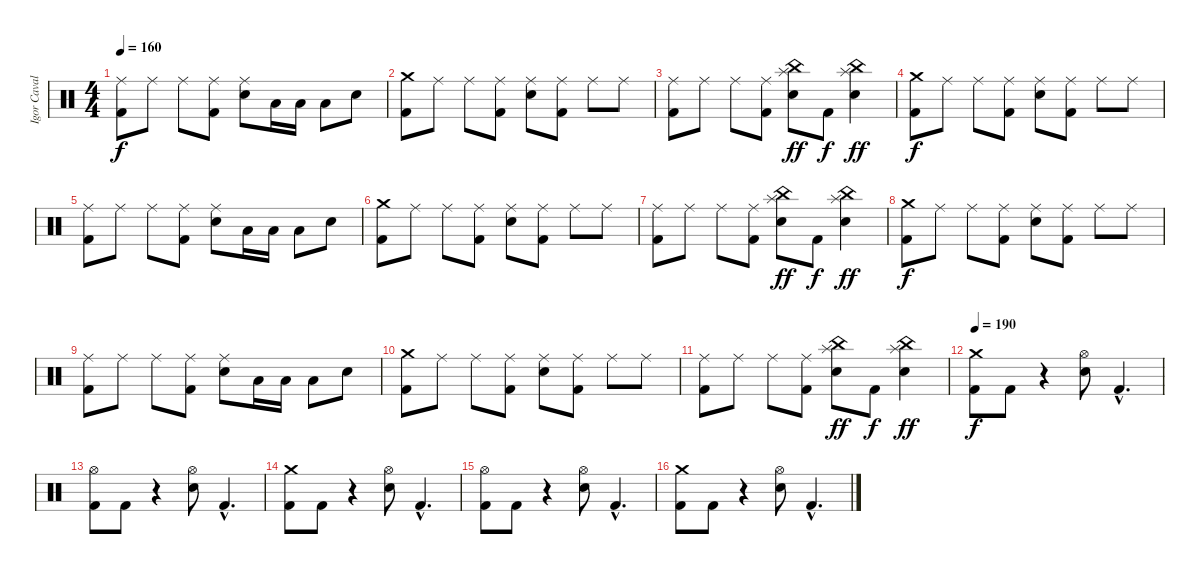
\track ("Igor Cavalera" "Igor Caval") {instrument percussion}
\staff {score}
\articulation defaults
\ts (4 4)
\tempo 160
\clef neutral
\ks c
("Kick (hit) 2" "Ride (middle)").8{dy f} "Ride (middle)".8 "Ride (middle)".8 ("Kick (hit) 2" "Ride (middle)").8 ("Electric Snare (hit)" "Ride (middle)").8 "Low Tom (hit)".16 "Low Tom (hit)".16 "Low Tom (hit)".8 "Electric Snare (hit)".8 |
("Kick (hit) 2" "Crash medium (hit)").8 "Ride (middle)".8 "Ride (middle)".8 ("Kick (hit) 2" "Ride (middle)").8 ("Electric Snare (hit)" "Ride (middle)").8 ("Kick (hit) 2" "Ride (middle)").8 "Ride (middle)".8 "Ride (middle)".8 |
("Kick (hit) 2" "Ride (middle)").8 "Ride (middle)".8 "Ride (middle)".8 ("Kick (hit) 2" "Ride (middle)").8 ("China (hit)" "Electric Snare (hit)" "Splash (hit)").8{dy ff} "Kick (hit) 2".8{dy f} ("China (hit)" "Electric Snare (hit)" "Splash (hit)").4{dy ff} |
("Kick (hit) 2" "Crash medium (hit)").8{dy f} "Ride (middle)".8 "Ride (middle)".8 ("Kick (hit) 2" "Ride (middle)").8 ("Electric Snare (hit)" "Ride (middle)").8 ("Kick (hit) 2" "Ride (middle)").8 "Ride (middle)".8 "Ride (middle)".8 |
("Kick (hit) 2" "Ride (middle)").8 "Ride (middle)".8 "Ride (middle)".8 ("Kick (hit) 2" "Ride (middle)").8 ("Electric Snare (hit)" "Ride (middle)").8 "Low Tom (hit)".16 "Low Tom (hit)".16 "Low Tom (hit)".8 "Electric Snare (hit)".8 |
("Kick (hit) 2" "Crash medium (hit)").8 "Ride (middle)".8 "Ride (middle)".8 ("Kick (hit) 2" "Ride (middle)").8 ("Electric Snare (hit)" "Ride (middle)").8 ("Kick (hit) 2" "Ride (middle)").8 "Ride (middle)".8 "Ride (middle)".8 |
("Kick (hit) 2" "Ride (middle)").8 "Ride (middle)".8 "Ride (middle)".8 ("Kick (hit) 2" "Ride (middle)").8 ("China (hit)" "Electric Snare (hit)" "Splash (hit)").8{dy ff} "Kick (hit) 2".8{dy f} ("China (hit)" "Electric Snare (hit)" "Splash (hit)").4{dy ff} |
("Kick (hit) 2" "Crash medium (hit)").8{dy f} "Ride (middle)".8 "Ride (middle)".8 ("Kick (hit) 2" "Ride (middle)").8 ("Electric Snare (hit)" "Ride (middle)").8 ("Kick (hit) 2" "Ride (middle)").8 "Ride (middle)".8 "Ride (middle)".8 |
("Kick (hit) 2" "Ride (middle)").8 "Ride (middle)".8 "Ride (middle)".8 ("Kick (hit) 2" "Ride (middle)").8 ("Electric Snare (hit)" "Ride (middle)").8 "Low Tom (hit)".16 "Low Tom (hit)".16 "Low Tom (hit)".8 "Electric Snare (hit)".8 |
("Kick (hit) 2" "Crash medium (hit)").8 "Ride (middle)".8 "Ride (middle)".8 ("Kick (hit) 2" "Ride (middle)").8 ("Electric Snare (hit)" "Ride (middle)").8 ("Kick (hit) 2" "Ride (middle)").8 "Ride (middle)".8 "Ride (middle)".8 |
("Kick (hit) 2" "Ride (middle)").8 "Ride (middle)".8 "Ride (middle)".8 ("Kick (hit) 2" "Ride (middle)").8 ("China (hit)" "Electric Snare (hit)" "Splash (hit)").8{dy ff} "Kick (hit) 2".8{dy f} ("China (hit)" "Electric Snare (hit)" "Splash (hit)").4{dy ff} |
\tempo 190
("Kick (hit) 2" "Crash medium (hit)").8{dy f} "Kick (hit) 2".8 r.4 ("Electric Snare (hit)" "Hi-Hat (open)").8 "Kick (hit) 2"{hac}.4{d} |
("Kick (hit) 2" "Hi-Hat (open)").8 "Kick (hit) 2".8 r.4 ("Electric Snare (hit)" "Hi-Hat (open)").8 "Kick (hit) 2"{hac}.4{d} |
("Kick (hit) 2" "Crash medium (hit)").8 "Kick (hit) 2".8 r.4 ("Electric Snare (hit)" "Hi-Hat (open)").8 "Kick (hit) 2"{hac}.4{d} |
("Kick (hit) 2" "Hi-Hat (open)").8 "Kick (hit) 2".8 r.4 ("Electric Snare (hit)" "Hi-Hat (open)").8 "Kick (hit) 2"{hac}.4{d} |
("Kick (hit) 2" "Crash medium (hit)").8 "Kick (hit) 2".8 r.4 ("Electric Snare (hit)" "Hi-Hat (open)").8 "Kick (hit) 2"{hac}.4{d}
